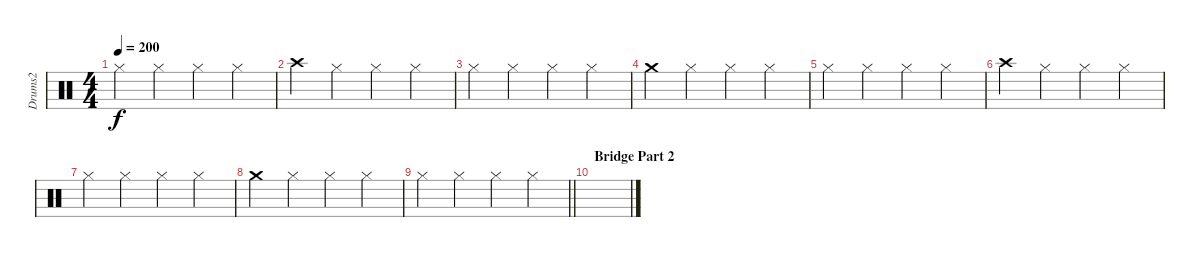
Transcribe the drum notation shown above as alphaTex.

\track ("Drums2" "Drums2") {instrument percussion}
\staff {score}
\articulation defaults
\ts (4 4)
\tempo 200
\clef neutral
\ks c "Hi-Hat (closed)".4{dy f} "Hi-Hat (closed)".4 "Hi-Hat (closed)".4 "Hi-Hat (closed)".4
|
"Crash high (hit)".4 "Hi-Hat (closed)".4 "Hi-Hat (closed)".4 "Hi-Hat (closed)".4 |
"Hi-Hat (closed)".4 "Hi-Hat (closed)".4 "Hi-Hat (closed)".4 "Hi-Hat (closed)".4 |
"Crash medium (hit)".4 "Hi-Hat (closed)".4 "Hi-Hat (closed)".4 "Hi-Hat (closed)".4 |
"Hi-Hat (closed)".4 "Hi-Hat (closed)".4 "Hi-Hat (closed)".4 "Hi-Hat (closed)".4 |
"Crash high (hit)".4 "Hi-Hat (closed)".4 "Hi-Hat (closed)".4 "Hi-Hat (closed)".4 |
"Hi-Hat (closed)".4 "Hi-Hat (closed)".4 "Hi-Hat (closed)".4 "Hi-Hat (closed)".4 |
"Crash medium (hit)".4 "Hi-Hat (closed)".4 "Hi-Hat (closed)".4 "Hi-Hat (closed)".4 |
\barLineRight lightlight "Hi-Hat (closed)".4 "Hi-Hat (closed)".4 "Hi-Hat (closed)".4 "Hi-Hat (closed)".4
|
\section ("" "Bridge Part 2")
